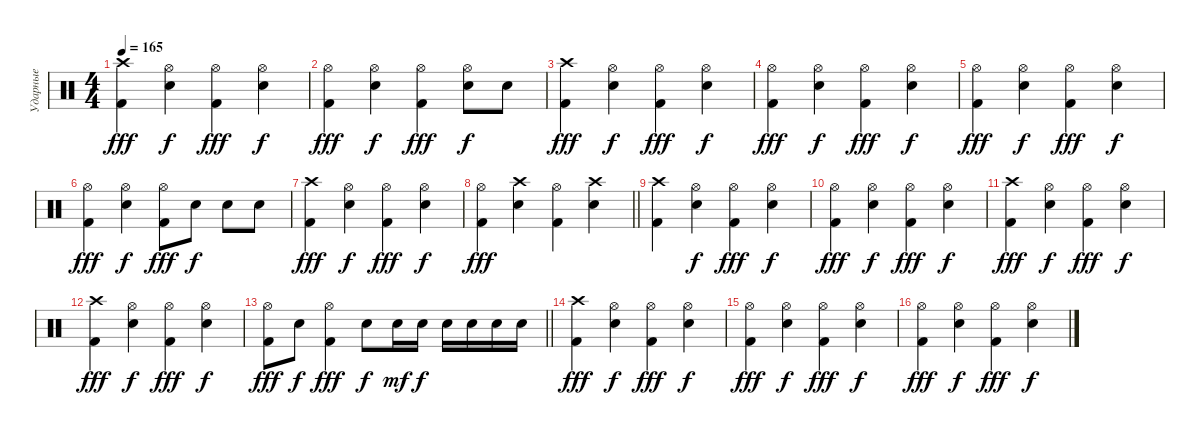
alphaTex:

\track ("Ударные" "Ударные") {instrument percussion}
\staff {score}
\articulation defaults
\ts (4 4)
\tempo 165
\clef neutral
\ks c
("Kick (hit) 2" "Crash high (hit)").4{dy fff} ("Snare (hit) 2" "Hi-Hat (open)").4{dy f} ("Kick (hit) 2" "Hi-Hat (open)").4{dy fff} ("Snare (hit) 2" "Hi-Hat (open)").4{dy f} |
("Kick (hit) 2" "Hi-Hat (open)").4{dy fff} ("Snare (hit) 2" "Hi-Hat (open)").4{dy f} ("Kick (hit) 2" "Hi-Hat (open)").4{dy fff} ("Snare (hit) 2" "Hi-Hat (open)").8{dy f} "Snare (hit) 2".8 |
("Kick (hit) 2" "Crash high (hit)").4{dy fff} ("Snare (hit) 2" "Hi-Hat (open)").4{dy f} ("Kick (hit) 2" "Hi-Hat (open)").4{dy fff} ("Snare (hit) 2" "Hi-Hat (open)").4{dy f} |
("Kick (hit) 2" "Hi-Hat (open)").4{dy fff} ("Snare (hit) 2" "Hi-Hat (open)").4{dy f} ("Kick (hit) 2" "Hi-Hat (open)").4{dy fff} ("Snare (hit) 2" "Hi-Hat (open)").4{dy f} |
("Kick (hit) 2" "Hi-Hat (open)").4{dy fff} ("Snare (hit) 2" "Hi-Hat (open)").4{dy f} ("Kick (hit) 2" "Hi-Hat (open)").4{dy fff} ("Snare (hit) 2" "Hi-Hat (open)").4{dy f} |
("Kick (hit) 2" "Hi-Hat (open)").4{dy fff} ("Snare (hit) 2" "Hi-Hat (open)").4{dy f} ("Kick (hit) 2" "Hi-Hat (open)").8{dy fff} "Snare (hit) 2".8{dy f} "Snare (hit) 2".8 "Snare (hit) 2".8 |
("Kick (hit) 2" "Crash high (hit)").4{dy fff} ("Snare (hit) 2" "Hi-Hat (open)").4{dy f} ("Kick (hit) 2" "Hi-Hat (open)").4{dy fff} ("Snare (hit) 2" "Hi-Hat (open)").4{dy f} |
\barLineRight lightlight
("Kick (hit) 2" "Hi-Hat (open)").4{dy fff} ("Snare (hit) 2" "Crash high (hit)").4 ("Kick (hit) 2" "Hi-Hat (open)").4 ("Snare (hit) 2" "Crash high (hit)").4 |
("Kick (hit) 2" "Crash high (hit)").4 ("Snare (hit) 2" "Hi-Hat (open)").4{dy f} ("Kick (hit) 2" "Hi-Hat (open)").4{dy fff} ("Snare (hit) 2" "Hi-Hat (open)").4{dy f} |
("Kick (hit) 2" "Hi-Hat (open)").4{dy fff} ("Snare (hit) 2" "Hi-Hat (open)").4{dy f} ("Kick (hit) 2" "Hi-Hat (open)").4{dy fff} ("Snare (hit) 2" "Hi-Hat (open)").4{dy f} |
("Kick (hit) 2" "Crash high (hit)").4{dy fff} ("Snare (hit) 2" "Hi-Hat (open)").4{dy f} ("Kick (hit) 2" "Hi-Hat (open)").4{dy fff} ("Snare (hit) 2" "Hi-Hat (open)").4{dy f} |
("Kick (hit) 2" "Crash high (hit)").4{dy fff} ("Snare (hit) 2" "Hi-Hat (open)").4{dy f} ("Kick (hit) 2" "Hi-Hat (open)").4{dy fff} ("Snare (hit) 2" "Hi-Hat (open)").4{dy f} |
\barLineRight lightlight
("Kick (hit) 2" "Hi-Hat (open)").8{dy fff} "Snare (hit) 2".8{dy f} ("Kick (hit) 2" "Hi-Hat (open)").4{dy fff} "Snare (hit) 2".8{dy f} "Snare (hit) 2".16{dy mf} "Snare (hit) 2".16{dy f} "Snare (hit) 2".16 "Snare (hit) 2".16 "Snare (hit) 2".16 "Snare (hit) 2".16 |
("Kick (hit) 2" "Crash high (hit)").4{dy fff} ("Snare (hit) 2" "Hi-Hat (open)").4{dy f} ("Kick (hit) 2" "Hi-Hat (open)").4{dy fff} ("Snare (hit) 2" "Hi-Hat (open)").4{dy f} |
("Kick (hit) 2" "Hi-Hat (open)").4{dy fff} ("Snare (hit) 2" "Hi-Hat (open)").4{dy f} ("Kick (hit) 2" "Hi-Hat (open)").4{dy fff} ("Snare (hit) 2" "Hi-Hat (open)").4{dy f} |
("Kick (hit) 2" "Hi-Hat (open)").4{dy fff} ("Snare (hit) 2" "Hi-Hat (open)").4{dy f} ("Kick (hit) 2" "Hi-Hat (open)").4{dy fff} ("Snare (hit) 2" "Hi-Hat (open)").4{dy f}
